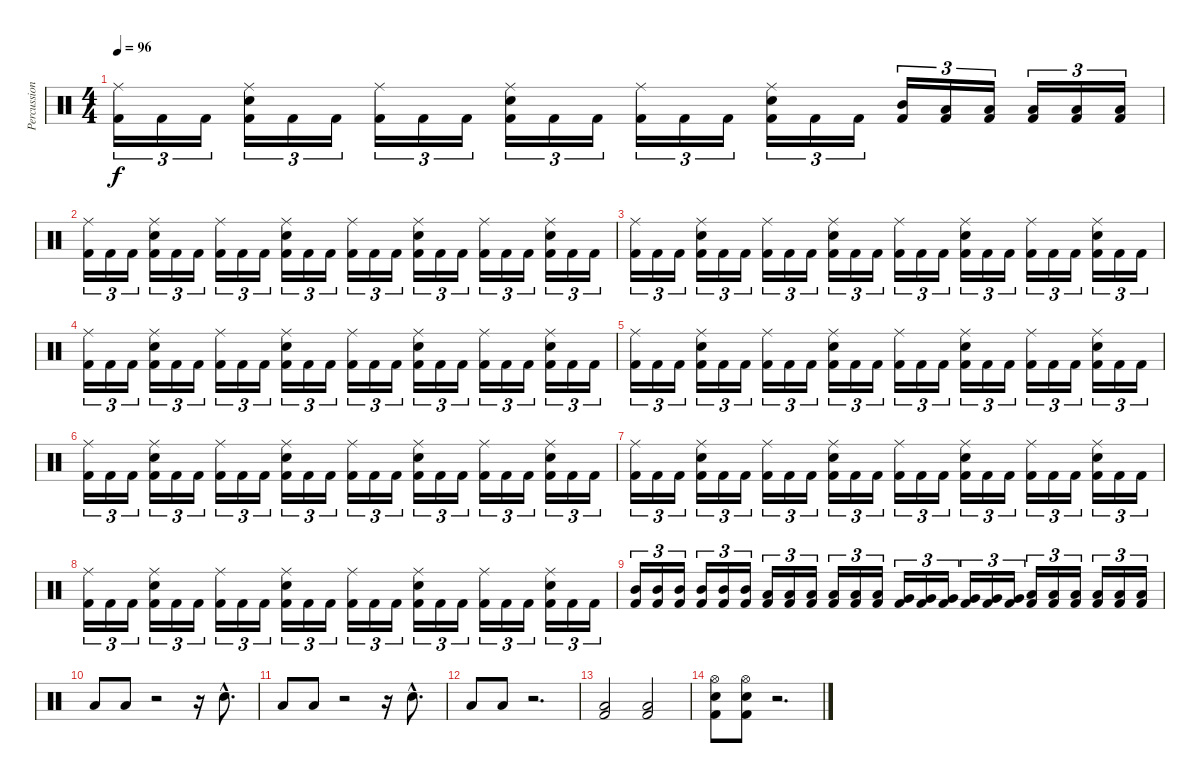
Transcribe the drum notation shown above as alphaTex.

\track ("Percussion" "Percussion") {instrument percussion}
\staff {score}
\articulation defaults
\ts (4 4)
\tempo 96
\clef neutral
\ks c
("Ride (middle)" "Kick (hit) 2").16{tu (3 2) dy f} "Kick (hit) 2".16{tu (3 2)} "Kick (hit) 2".16{tu (3 2)} ("Ride (middle)" "Snare (hit) 2" "Kick (hit) 2").16{tu (3 2)} "Kick (hit) 2".16{tu (3 2)} "Kick (hit) 2".16{tu (3 2)} ("Ride (middle)" "Kick (hit) 2").16{tu (3 2)} "Kick (hit) 2".16{tu (3 2)} "Kick (hit) 2".16{tu (3 2)} ("Ride (middle)" "Snare (hit) 2" "Kick (hit) 2").16{tu (3 2)} "Kick (hit) 2".16{tu (3 2)} "Kick (hit) 2".16{tu (3 2)} ("Ride (middle)" "Kick (hit) 2").16{tu (3 2)} "Kick (hit) 2".16{tu (3 2)} "Kick (hit) 2".16{tu (3 2)} ("Ride (middle)" "Snare (hit) 2" "Kick (hit) 2").16{tu (3 2)} "Kick (hit) 2".16{tu (3 2)} "Kick (hit) 2".16{tu (3 2)} ("Mid Tom (hit)" "Kick (hit) 2").16{tu (3 2)} ("Low Tom (hit)" "Kick (hit) 2").16{tu (3 2)} ("Low Floor Tom (hit)" "Kick (hit) 2").16{tu (3 2)} ("Low Floor Tom (hit)" "Kick (hit) 2").16{tu (3 2)} ("Low Tom (hit)" "Kick (hit) 2").16{tu (3 2)} ("Low Floor Tom (hit)" "Kick (hit) 2").16{tu (3 2)} |
("Ride (middle)" "Kick (hit) 2").16{tu (3 2)} "Kick (hit) 2".16{tu (3 2)} "Kick (hit) 2".16{tu (3 2)} ("Ride (middle)" "Snare (hit) 2" "Kick (hit) 2").16{tu (3 2)} "Kick (hit) 2".16{tu (3 2)} "Kick (hit) 2".16{tu (3 2)} ("Ride (middle)" "Kick (hit) 2").16{tu (3 2)} "Kick (hit) 2".16{tu (3 2)} "Kick (hit) 2".16{tu (3 2)} ("Ride (middle)" "Snare (hit) 2" "Kick (hit) 2").16{tu (3 2)} "Kick (hit) 2".16{tu (3 2)} "Kick (hit) 2".16{tu (3 2)} ("Ride (middle)" "Kick (hit) 2").16{tu (3 2)} "Kick (hit) 2".16{tu (3 2)} "Kick (hit) 2".16{tu (3 2)} ("Ride (middle)" "Snare (hit) 2" "Kick (hit) 2").16{tu (3 2)} "Kick (hit) 2".16{tu (3 2)} "Kick (hit) 2".16{tu (3 2)} ("Ride (middle)" "Kick (hit) 2").16{tu (3 2)} "Kick (hit) 2".16{tu (3 2)} "Kick (hit) 2".16{tu (3 2)} ("Ride (middle)" "Snare (hit) 2" "Kick (hit) 2").16{tu (3 2)} "Kick (hit) 2".16{tu (3 2)} "Kick (hit) 2".16{tu (3 2)} |
("Ride (middle)" "Kick (hit) 2").16{tu (3 2)} "Kick (hit) 2".16{tu (3 2)} "Kick (hit) 2".16{tu (3 2)} ("Ride (middle)" "Snare (hit) 2" "Kick (hit) 2").16{tu (3 2)} "Kick (hit) 2".16{tu (3 2)} "Kick (hit) 2".16{tu (3 2)} ("Ride (middle)" "Kick (hit) 2").16{tu (3 2)} "Kick (hit) 2".16{tu (3 2)} "Kick (hit) 2".16{tu (3 2)} ("Ride (middle)" "Snare (hit) 2" "Kick (hit) 2").16{tu (3 2)} "Kick (hit) 2".16{tu (3 2)} "Kick (hit) 2".16{tu (3 2)} ("Ride (middle)" "Kick (hit) 2").16{tu (3 2)} "Kick (hit) 2".16{tu (3 2)} "Kick (hit) 2".16{tu (3 2)} ("Ride (middle)" "Snare (hit) 2" "Kick (hit) 2").16{tu (3 2)} "Kick (hit) 2".16{tu (3 2)} "Kick (hit) 2".16{tu (3 2)} ("Ride (middle)" "Kick (hit) 2").16{tu (3 2)} "Kick (hit) 2".16{tu (3 2)} "Kick (hit) 2".16{tu (3 2)} ("Ride (middle)" "Snare (hit) 2" "Kick (hit) 2").16{tu (3 2)} "Kick (hit) 2".16{tu (3 2)} "Kick (hit) 2".16{tu (3 2)} |
("Ride (middle)" "Kick (hit) 2").16{tu (3 2)} "Kick (hit) 2".16{tu (3 2)} "Kick (hit) 2".16{tu (3 2)} ("Ride (middle)" "Snare (hit) 2" "Kick (hit) 2").16{tu (3 2)} "Kick (hit) 2".16{tu (3 2)} "Kick (hit) 2".16{tu (3 2)} ("Ride (middle)" "Kick (hit) 2").16{tu (3 2)} "Kick (hit) 2".16{tu (3 2)} "Kick (hit) 2".16{tu (3 2)} ("Ride (middle)" "Snare (hit) 2" "Kick (hit) 2").16{tu (3 2)} "Kick (hit) 2".16{tu (3 2)} "Kick (hit) 2".16{tu (3 2)} ("Ride (middle)" "Kick (hit) 2").16{tu (3 2)} "Kick (hit) 2".16{tu (3 2)} "Kick (hit) 2".16{tu (3 2)} ("Ride (middle)" "Snare (hit) 2" "Kick (hit) 2").16{tu (3 2)} "Kick (hit) 2".16{tu (3 2)} "Kick (hit) 2".16{tu (3 2)} ("Ride (middle)" "Kick (hit) 2").16{tu (3 2)} "Kick (hit) 2".16{tu (3 2)} "Kick (hit) 2".16{tu (3 2)} ("Ride (middle)" "Snare (hit) 2" "Kick (hit) 2").16{tu (3 2)} "Kick (hit) 2".16{tu (3 2)} "Kick (hit) 2".16{tu (3 2)} |
("Ride (middle)" "Kick (hit) 2").16{tu (3 2)} "Kick (hit) 2".16{tu (3 2)} "Kick (hit) 2".16{tu (3 2)} ("Ride (middle)" "Snare (hit) 2" "Kick (hit) 2").16{tu (3 2)} "Kick (hit) 2".16{tu (3 2)} "Kick (hit) 2".16{tu (3 2)} ("Ride (middle)" "Kick (hit) 2").16{tu (3 2)} "Kick (hit) 2".16{tu (3 2)} "Kick (hit) 2".16{tu (3 2)} ("Ride (middle)" "Snare (hit) 2" "Kick (hit) 2").16{tu (3 2)} "Kick (hit) 2".16{tu (3 2)} "Kick (hit) 2".16{tu (3 2)} ("Ride (middle)" "Kick (hit) 2").16{tu (3 2)} "Kick (hit) 2".16{tu (3 2)} "Kick (hit) 2".16{tu (3 2)} ("Ride (middle)" "Snare (hit) 2" "Kick (hit) 2").16{tu (3 2)} "Kick (hit) 2".16{tu (3 2)} "Kick (hit) 2".16{tu (3 2)} ("Ride (middle)" "Kick (hit) 2").16{tu (3 2)} "Kick (hit) 2".16{tu (3 2)} "Kick (hit) 2".16{tu (3 2)} ("Ride (middle)" "Snare (hit) 2" "Kick (hit) 2").16{tu (3 2)} "Kick (hit) 2".16{tu (3 2)} "Kick (hit) 2".16{tu (3 2)} |
("Ride (middle)" "Kick (hit) 2").16{tu (3 2)} "Kick (hit) 2".16{tu (3 2)} "Kick (hit) 2".16{tu (3 2)} ("Ride (middle)" "Snare (hit) 2" "Kick (hit) 2").16{tu (3 2)} "Kick (hit) 2".16{tu (3 2)} "Kick (hit) 2".16{tu (3 2)} ("Ride (middle)" "Kick (hit) 2").16{tu (3 2)} "Kick (hit) 2".16{tu (3 2)} "Kick (hit) 2".16{tu (3 2)} ("Ride (middle)" "Snare (hit) 2" "Kick (hit) 2").16{tu (3 2)} "Kick (hit) 2".16{tu (3 2)} "Kick (hit) 2".16{tu (3 2)} ("Ride (middle)" "Kick (hit) 2").16{tu (3 2)} "Kick (hit) 2".16{tu (3 2)} "Kick (hit) 2".16{tu (3 2)} ("Ride (middle)" "Snare (hit) 2" "Kick (hit) 2").16{tu (3 2)} "Kick (hit) 2".16{tu (3 2)} "Kick (hit) 2".16{tu (3 2)} ("Ride (middle)" "Kick (hit) 2").16{tu (3 2)} "Kick (hit) 2".16{tu (3 2)} "Kick (hit) 2".16{tu (3 2)} ("Ride (middle)" "Snare (hit) 2" "Kick (hit) 2").16{tu (3 2)} "Kick (hit) 2".16{tu (3 2)} "Kick (hit) 2".16{tu (3 2)} |
("Ride (middle)" "Kick (hit) 2").16{tu (3 2)} "Kick (hit) 2".16{tu (3 2)} "Kick (hit) 2".16{tu (3 2)} ("Ride (middle)" "Snare (hit) 2" "Kick (hit) 2").16{tu (3 2)} "Kick (hit) 2".16{tu (3 2)} "Kick (hit) 2".16{tu (3 2)} ("Ride (middle)" "Kick (hit) 2").16{tu (3 2)} "Kick (hit) 2".16{tu (3 2)} "Kick (hit) 2".16{tu (3 2)} ("Ride (middle)" "Snare (hit) 2" "Kick (hit) 2").16{tu (3 2)} "Kick (hit) 2".16{tu (3 2)} "Kick (hit) 2".16{tu (3 2)} ("Ride (middle)" "Kick (hit) 2").16{tu (3 2)} "Kick (hit) 2".16{tu (3 2)} "Kick (hit) 2".16{tu (3 2)} ("Ride (middle)" "Snare (hit) 2" "Kick (hit) 2").16{tu (3 2)} "Kick (hit) 2".16{tu (3 2)} "Kick (hit) 2".16{tu (3 2)} ("Ride (middle)" "Kick (hit) 2").16{tu (3 2)} "Kick (hit) 2".16{tu (3 2)} "Kick (hit) 2".16{tu (3 2)} ("Ride (middle)" "Snare (hit) 2" "Kick (hit) 2").16{tu (3 2)} "Kick (hit) 2".16{tu (3 2)} "Kick (hit) 2".16{tu (3 2)} |
("Ride (middle)" "Kick (hit) 2").16{tu (3 2)} "Kick (hit) 2".16{tu (3 2)} "Kick (hit) 2".16{tu (3 2)} ("Ride (middle)" "Snare (hit) 2" "Kick (hit) 2").16{tu (3 2)} "Kick (hit) 2".16{tu (3 2)} "Kick (hit) 2".16{tu (3 2)} ("Ride (middle)" "Kick (hit) 2").16{tu (3 2)} "Kick (hit) 2".16{tu (3 2)} "Kick (hit) 2".16{tu (3 2)} ("Ride (middle)" "Snare (hit) 2" "Kick (hit) 2").16{tu (3 2)} "Kick (hit) 2".16{tu (3 2)} "Kick (hit) 2".16{tu (3 2)} ("Ride (middle)" "Kick (hit) 2").16{tu (3 2)} "Kick (hit) 2".16{tu (3 2)} "Kick (hit) 2".16{tu (3 2)} ("Ride (middle)" "Snare (hit) 2" "Kick (hit) 2").16{tu (3 2)} "Kick (hit) 2".16{tu (3 2)} "Kick (hit) 2".16{tu (3 2)} ("Ride (middle)" "Kick (hit) 2").16{tu (3 2)} "Kick (hit) 2".16{tu (3 2)} "Kick (hit) 2".16{tu (3 2)} ("Ride (middle)" "Snare (hit) 2" "Kick (hit) 2").16{tu (3 2)} "Kick (hit) 2".16{tu (3 2)} "Kick (hit) 2".16{tu (3 2)} |
("Mid Tom (hit)" "Kick (hit) 2").16{tu (3 2)} ("Mid Tom (hit)" "Kick (hit) 2").16{tu (3 2)} ("Mid Tom (hit)" "Kick (hit) 2").16{tu (3 2)} ("Mid Tom (hit)" "Kick (hit) 2").16{tu (3 2)} ("Mid Tom (hit)" "Kick (hit) 2").16{tu (3 2)} ("Mid Tom (hit)" "Kick (hit) 2").16{tu (3 2)} ("Low Tom (hit)" "Kick (hit) 2").16{tu (3 2)} ("Low Tom (hit)" "Kick (hit) 2").16{tu (3 2)} ("Low Tom (hit)" "Kick (hit) 2").16{tu (3 2)} ("Low Tom (hit)" "Kick (hit) 2").16{tu (3 2)} ("Low Tom (hit)" "Kick (hit) 2").16{tu (3 2)} ("Low Tom (hit)" "Kick (hit) 2").16{tu (3 2)} ("Very Low Tom (hit)" "Kick (hit) 2").16{tu (3 2)} ("Very Low Tom (hit)" "Kick (hit) 2").16{tu (3 2)} ("Very Low Tom (hit)" "Kick (hit) 2").16{tu (3 2)} ("Very Low Tom (hit)" "Kick (hit) 2").16{tu (3 2)} ("Very Low Tom (hit)" "Kick (hit) 2").16{tu (3 2)} ("Very Low Tom (hit)" "Kick (hit) 2").16{tu (3 2)} ("Low Floor Tom (hit)" "Kick (hit) 2").16{tu (3 2)} ("Low Floor Tom (hit)" "Kick (hit) 2").16{tu (3 2)} ("Low Floor Tom (hit)" "Kick (hit) 2").16{tu (3 2)} ("Low Floor Tom (hit)" "Kick (hit) 2").16{tu (3 2)} ("Low Floor Tom (hit)" "Kick (hit) 2").16{tu (3 2)} ("Low Floor Tom (hit)" "Kick (hit) 2").16{tu (3 2)} |
"Low Tom (hit)".8 "Low Tom (hit)".8 r.2 r.16 "Snare (hit) 2"{hac}.8{d} |
"Low Tom (hit)".8 "Low Tom (hit)".8 r.2 r.16 "Snare (hit) 2"{hac}.8{d} |
"Low Tom (hit)".8 "Low Tom (hit)".8 r.2{d} |
("Low Tom (hit)" "Kick (hit) 2").2 ("Low Tom (hit)" "Kick (hit) 2").2 |
("Hi-Hat (open)" "Snare (hit) 2" "Kick (hit) 2").8 ("Hi-Hat (open)" "Snare (hit) 2" "Kick (hit) 2").8 r.2{d}
